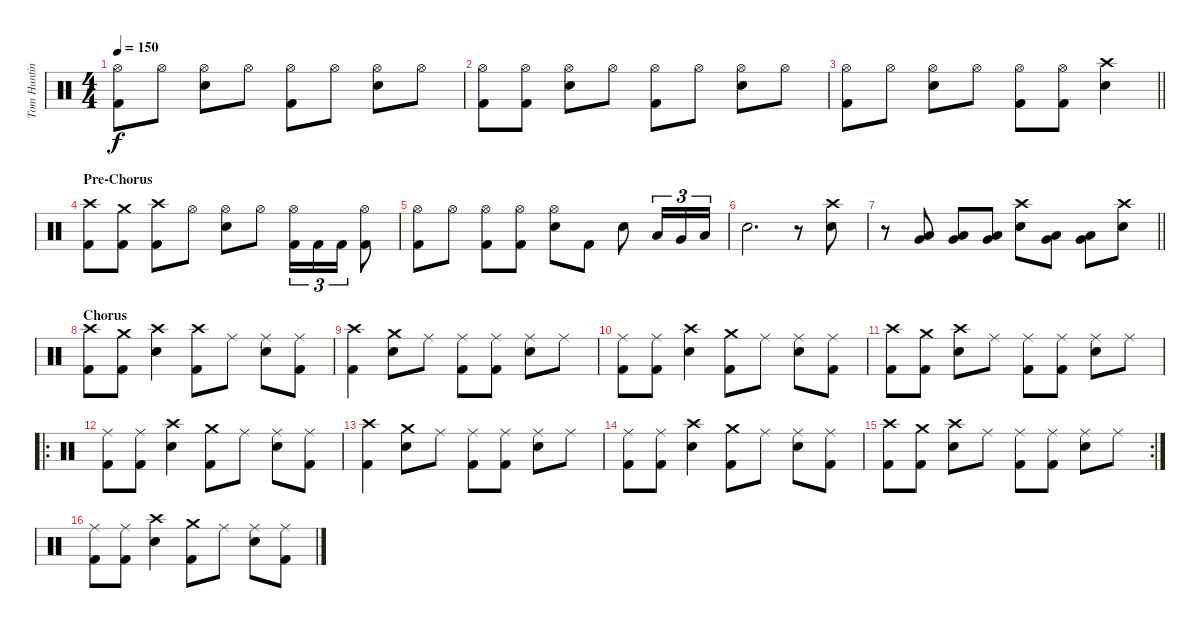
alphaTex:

\track ("Tom Hunting" "Tom Huntin") {instrument percussion}
\staff {score}
\articulation defaults
\ts (4 4)
\tempo 150
\clef neutral
\ks c
("Hi-Hat (open)" "Kick (hit) 2").8{dy f} "Hi-Hat (open)".8 ("Hi-Hat (open)" "Snare (hit) 2").8 "Hi-Hat (open)".8 ("Hi-Hat (open)" "Kick (hit) 2").8 "Hi-Hat (open)".8 ("Hi-Hat (open)" "Snare (hit) 2").8 "Hi-Hat (open)".8 |
("Hi-Hat (open)" "Kick (hit) 2").8 ("Hi-Hat (open)" "Kick (hit) 2").8 ("Hi-Hat (open)" "Snare (hit) 2").8 "Hi-Hat (open)".8 ("Hi-Hat (open)" "Kick (hit) 2").8 "Hi-Hat (open)".8 ("Hi-Hat (open)" "Snare (hit) 2").8 "Hi-Hat (open)".8 |
\barLineRight lightlight
("Hi-Hat (open)" "Kick (hit) 2").8 "Hi-Hat (open)".8 ("Hi-Hat (open)" "Snare (hit) 2").8 "Hi-Hat (open)".8 ("Hi-Hat (open)" "Kick (hit) 2").8 ("Hi-Hat (open)" "Kick (hit) 2").8 ("Crash high (hit)" "Snare (hit) 2").4 |
\section ("" "Pre-Chorus")
("Crash high (hit)" "Kick (hit) 2").8 ("Crash medium (hit)" "Kick (hit) 2").8 ("Crash high (hit)" "Kick (hit) 2").8 "Hi-Hat (open)".8 ("Hi-Hat (open)" "Snare (hit) 2").8 "Hi-Hat (open)".8 ("Hi-Hat (open)" "Kick (hit) 2").16{tu (3 2)} "Kick (hit) 2".16{tu (3 2)} "Kick (hit) 2".16{tu (3 2)} ("Hi-Hat (open)" "Kick (hit) 2").8 |
("Hi-Hat (open)" "Kick (hit) 2").8 "Hi-Hat (open)".8 ("Hi-Hat (open)" "Kick (hit) 2").8 ("Hi-Hat (open)" "Kick (hit) 2").8 ("Hi-Hat (open)" "Snare (hit) 2").8 "Kick (hit) 2".8 "Snare (hit) 2".8 "Low Tom (hit)".16{tu (3 2)} "Very Low Tom (hit)".16{tu (3 2)} "Low Floor Tom (hit)".16{tu (3 2)} |
"Snare (hit) 2".2{d} r.8 ("Crash high (hit)" "Snare (hit) 2").8 |
\barLineRight lightlight
r.8 ("Low Tom (hit)" "Very Low Tom (hit)").8 ("Low Tom (hit)" "Very Low Tom (hit)").8 ("Low Tom (hit)" "Very Low Tom (hit)").8 ("Crash high (hit)" "Snare (hit) 2").8 ("Low Tom (hit)" "Very Low Tom (hit)").8 ("Low Tom (hit)" "Very Low Tom (hit)").8 ("Crash high (hit)" "Snare (hit) 2").8 |
\section ("" "Chorus")
("Crash high (hit)" "Kick (hit) 2").8 ("Crash medium (hit)" "Kick (hit) 2").8 ("Crash high (hit)" "Snare (hit) 2").4 ("Crash high (hit)" "Kick (hit) 2").8 "Ride (middle)".8 ("Ride (middle)" "Snare (hit) 2").8 ("Ride (middle)" "Kick (hit) 2").8 |
("Crash high (hit)" "Kick (hit) 2").4 ("Crash medium (hit)" "Snare (hit) 2").8 "Ride (middle)".8 ("Ride (middle)" "Kick (hit) 2").8 ("Ride (middle)" "Kick (hit) 2").8 ("Ride (middle)" "Snare (hit) 2").8 "Ride (middle)".8 |
("Ride (middle)" "Kick (hit) 2").8 ("Ride (middle)" "Kick (hit) 2").8 ("Crash high (hit)" "Snare (hit) 2").4 ("Crash medium (hit)" "Kick (hit) 2").8 "Ride (middle)".8 ("Ride (middle)" "Snare (hit) 2").8 ("Ride (middle)" "Kick (hit) 2").8 |
("Crash high (hit)" "Kick (hit) 2").8 ("Crash medium (hit)" "Kick (hit) 2").8 ("Crash high (hit)" "Snare (hit) 2").8 "Ride (middle)".8 ("Ride (middle)" "Kick (hit) 2").8 ("Ride (middle)" "Kick (hit) 2").8 ("Ride (middle)" "Snare (hit) 2").8 "Ride (middle)".8 |
\ro
("Ride (middle)" "Kick (hit) 2").8 ("Ride (middle)" "Kick (hit) 2").8 ("Crash high (hit)" "Snare (hit) 2").4 ("Crash medium (hit)" "Kick (hit) 2").8 "Ride (middle)".8 ("Ride (middle)" "Snare (hit) 2").8 ("Ride (middle)" "Kick (hit) 2").8 |
("Crash high (hit)" "Kick (hit) 2").4 ("Crash medium (hit)" "Snare (hit) 2").8 "Ride (middle)".8 ("Ride (middle)" "Kick (hit) 2").8 ("Ride (middle)" "Kick (hit) 2").8 ("Ride (middle)" "Snare (hit) 2").8 "Ride (middle)".8 |
("Ride (middle)" "Kick (hit) 2").8 ("Ride (middle)" "Kick (hit) 2").8 ("Crash high (hit)" "Snare (hit) 2").4 ("Crash medium (hit)" "Kick (hit) 2").8 "Ride (middle)".8 ("Ride (middle)" "Snare (hit) 2").8 ("Ride (middle)" "Kick (hit) 2").8 |
\rc 2
("Crash high (hit)" "Kick (hit) 2").8 ("Crash medium (hit)" "Kick (hit) 2").8 ("Crash high (hit)" "Snare (hit) 2").8 "Ride (middle)".8 ("Ride (middle)" "Kick (hit) 2").8 ("Ride (middle)" "Kick (hit) 2").8 ("Ride (middle)" "Snare (hit) 2").8 "Ride (middle)".8 |
("Ride (middle)" "Kick (hit) 2").8 ("Ride (middle)" "Kick (hit) 2").8 ("Crash high (hit)" "Snare (hit) 2").4 ("Crash medium (hit)" "Kick (hit) 2").8 "Ride (middle)".8 ("Ride (middle)" "Snare (hit) 2").8 ("Ride (middle)" "Kick (hit) 2").8
